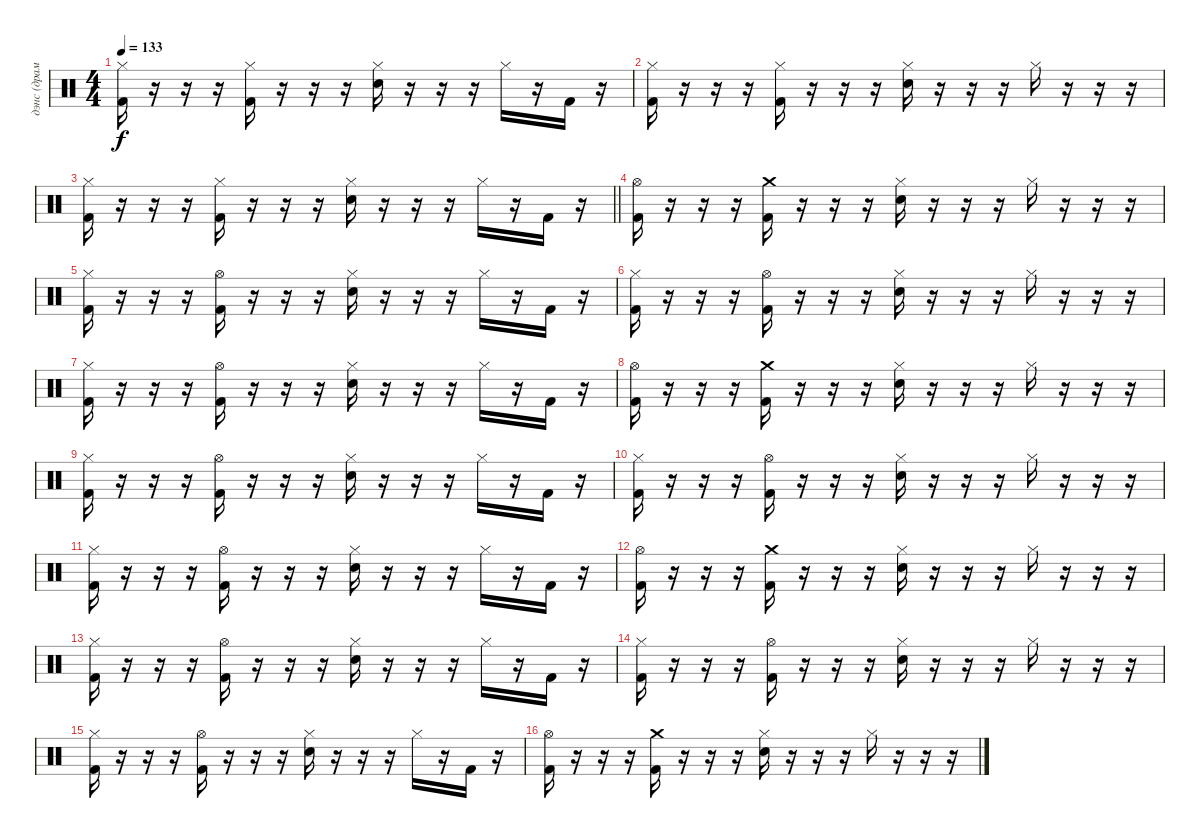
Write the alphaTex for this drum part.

\track ("дэнс (драммы)" "дэнс (драм") {instrument percussion}
\staff {score}
\articulation defaults
\ts (4 4)
\tempo 133
\clef neutral
\ks c
("Kick (hit) 2" "Hi-Hat (closed)").16{dy f} r.16 r.16 r.16 ("Kick (hit) 2" "Hi-Hat (closed)").16 r.16 r.16 r.16 ("Snare (hit) 2" "Hi-Hat (closed)").16 r.16 r.16 r.16 "Hi-Hat (closed)".16 r.16 "Kick (hit) 2".16 r.16 |
("Kick (hit) 2" "Hi-Hat (closed)").16 r.16 r.16 r.16 ("Kick (hit) 2" "Hi-Hat (closed)").16 r.16 r.16 r.16 ("Snare (hit) 2" "Hi-Hat (closed)").16 r.16 r.16 r.16 "Hi-Hat (closed)".16 r.16 r.16 r.16 |
\barLineRight lightlight
("Kick (hit) 2" "Hi-Hat (closed)").16 r.16 r.16 r.16 ("Kick (hit) 2" "Hi-Hat (closed)").16 r.16 r.16 r.16 ("Snare (hit) 2" "Hi-Hat (closed)").16 r.16 r.16 r.16 "Hi-Hat (closed)".16 r.16 "Kick (hit) 2".16 r.16 |
("Kick (hit) 2" "Hi-Hat (open)").16 r.16 r.16 r.16 ("Kick (hit) 2" "Crash medium (hit)").16 r.16 r.16 r.16 ("Snare (hit) 2" "Hi-Hat (closed)").16 r.16 r.16 r.16 "Hi-Hat (closed)".16 r.16 r.16 r.16 |
("Kick (hit) 2" "Hi-Hat (closed)").16 r.16 r.16 r.16 ("Kick (hit) 2" "Hi-Hat (open)").16 r.16 r.16 r.16 ("Snare (hit) 2" "Hi-Hat (closed)").16 r.16 r.16 r.16 "Hi-Hat (closed)".16 r.16 "Kick (hit) 2".16 r.16 |
("Kick (hit) 2" "Hi-Hat (closed)").16 r.16 r.16 r.16 ("Kick (hit) 2" "Hi-Hat (open)").16 r.16 r.16 r.16 ("Snare (hit) 2" "Hi-Hat (closed)").16 r.16 r.16 r.16 "Hi-Hat (closed)".16 r.16 r.16 r.16 |
("Kick (hit) 2" "Hi-Hat (closed)").16 r.16 r.16 r.16 ("Kick (hit) 2" "Hi-Hat (open)").16 r.16 r.16 r.16 ("Snare (hit) 2" "Hi-Hat (closed)").16 r.16 r.16 r.16 "Hi-Hat (closed)".16 r.16 "Kick (hit) 2".16 r.16 |
("Kick (hit) 2" "Hi-Hat (open)").16 r.16 r.16 r.16 ("Kick (hit) 2" "Crash medium (hit)").16 r.16 r.16 r.16 ("Snare (hit) 2" "Hi-Hat (closed)").16 r.16 r.16 r.16 "Hi-Hat (closed)".16 r.16 r.16 r.16 |
("Kick (hit) 2" "Hi-Hat (closed)").16 r.16 r.16 r.16 ("Kick (hit) 2" "Hi-Hat (open)").16 r.16 r.16 r.16 ("Snare (hit) 2" "Hi-Hat (closed)").16 r.16 r.16 r.16 "Hi-Hat (closed)".16 r.16 "Kick (hit) 2".16 r.16 |
("Kick (hit) 2" "Hi-Hat (closed)").16 r.16 r.16 r.16 ("Kick (hit) 2" "Hi-Hat (open)").16 r.16 r.16 r.16 ("Snare (hit) 2" "Hi-Hat (closed)").16 r.16 r.16 r.16 "Hi-Hat (closed)".16 r.16 r.16 r.16 |
("Kick (hit) 2" "Hi-Hat (closed)").16 r.16 r.16 r.16 ("Kick (hit) 2" "Hi-Hat (open)").16 r.16 r.16 r.16 ("Snare (hit) 2" "Hi-Hat (closed)").16 r.16 r.16 r.16 "Hi-Hat (closed)".16 r.16 "Kick (hit) 2".16 r.16 |
("Kick (hit) 2" "Hi-Hat (open)").16 r.16 r.16 r.16 ("Kick (hit) 2" "Crash medium (hit)").16 r.16 r.16 r.16 ("Snare (hit) 2" "Hi-Hat (closed)").16 r.16 r.16 r.16 "Hi-Hat (closed)".16 r.16 r.16 r.16 |
("Kick (hit) 2" "Hi-Hat (closed)").16 r.16 r.16 r.16 ("Kick (hit) 2" "Hi-Hat (open)").16 r.16 r.16 r.16 ("Snare (hit) 2" "Hi-Hat (closed)").16 r.16 r.16 r.16 "Hi-Hat (closed)".16 r.16 "Kick (hit) 2".16 r.16 |
("Kick (hit) 2" "Hi-Hat (closed)").16 r.16 r.16 r.16 ("Kick (hit) 2" "Hi-Hat (open)").16 r.16 r.16 r.16 ("Snare (hit) 2" "Hi-Hat (closed)").16 r.16 r.16 r.16 "Hi-Hat (closed)".16 r.16 r.16 r.16 |
("Kick (hit) 2" "Hi-Hat (closed)").16 r.16 r.16 r.16 ("Kick (hit) 2" "Hi-Hat (open)").16 r.16 r.16 r.16 ("Snare (hit) 2" "Hi-Hat (closed)").16 r.16 r.16 r.16 "Hi-Hat (closed)".16 r.16 "Kick (hit) 2".16 r.16 |
("Kick (hit) 2" "Hi-Hat (open)").16 r.16 r.16 r.16 ("Kick (hit) 2" "Crash medium (hit)").16 r.16 r.16 r.16 ("Snare (hit) 2" "Hi-Hat (closed)").16 r.16 r.16 r.16 "Hi-Hat (closed)".16 r.16 r.16 r.16
